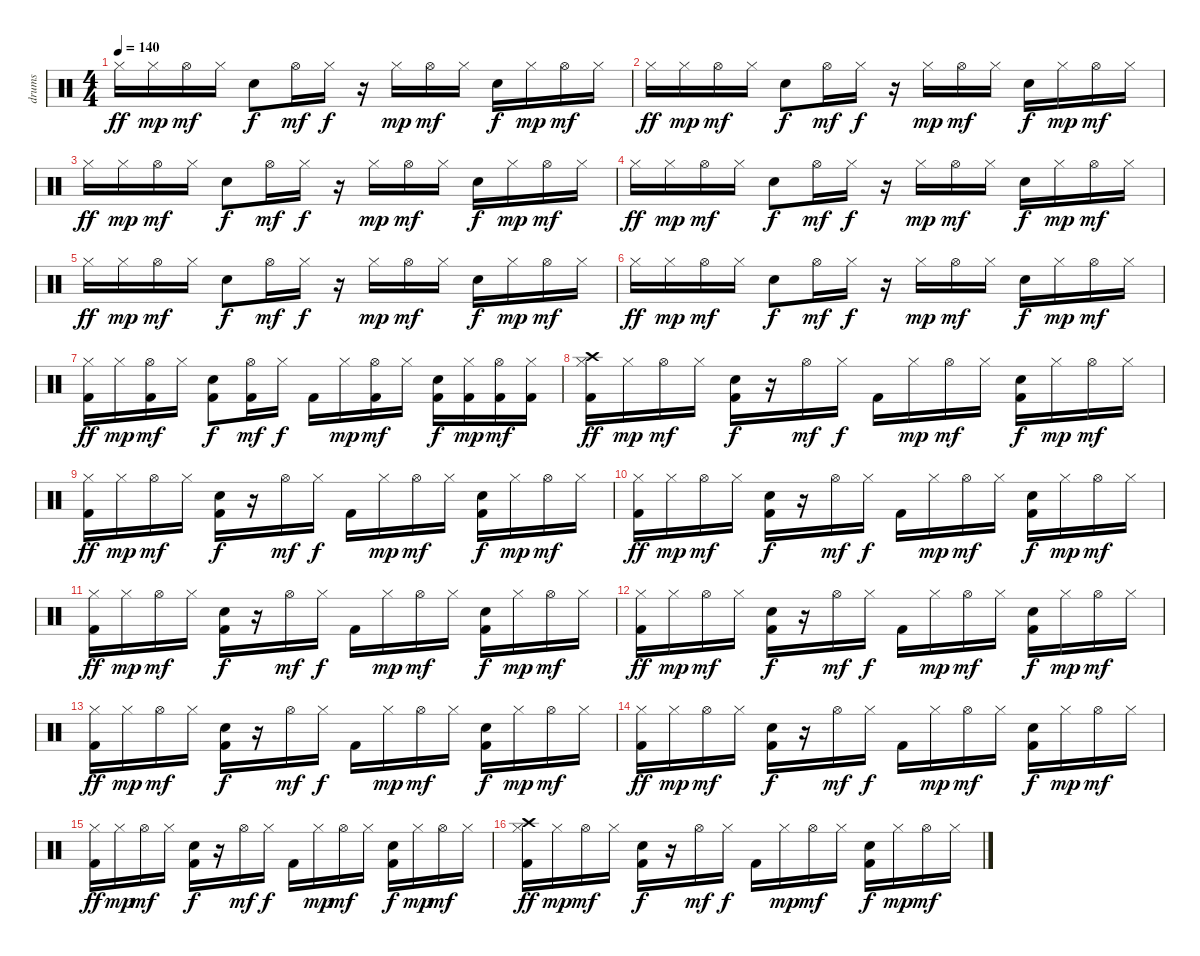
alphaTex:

\track ("drums" "drums") {instrument percussion}
\staff {score}
\articulation defaults
\ts (4 4)
\tempo 140
\clef neutral
\ks c "Hi-Hat (closed)".16{dy ff} "Hi-Hat (closed)".16{dy mp} "Hi-Hat (open)".16{dy mf} "Hi-Hat (closed)".16 "Hand Clap (hit)".8{dy f} "Hi-Hat (open)".16{dy mf} "Hi-Hat (closed)".16{dy f}
r.16 "Hi-Hat (closed)".16{dy mp} "Hi-Hat (open)".16{dy mf} "Hi-Hat (closed)".16 "Hand Clap (hit)".16{dy f} "Hi-Hat (closed)".16{dy mp} "Hi-Hat (open)".16{dy mf} "Hi-Hat (closed)".16 |
"Hi-Hat (closed)".16{dy ff} "Hi-Hat (closed)".16{dy mp} "Hi-Hat (open)".16{dy mf} "Hi-Hat (closed)".16 "Hand Clap (hit)".8{dy f} "Hi-Hat (open)".16{dy mf} "Hi-Hat (closed)".16{dy f} r.16 "Hi-Hat (closed)".16{dy mp} "Hi-Hat (open)".16{dy mf} "Hi-Hat (closed)".16 "Hand Clap (hit)".16{dy f} "Hi-Hat (closed)".16{dy mp} "Hi-Hat (open)".16{dy mf} "Hi-Hat (closed)".16 |
"Hi-Hat (closed)".16{dy ff} "Hi-Hat (closed)".16{dy mp} "Hi-Hat (open)".16{dy mf} "Hi-Hat (closed)".16 "Hand Clap (hit)".8{dy f} "Hi-Hat (open)".16{dy mf} "Hi-Hat (closed)".16{dy f} r.16 "Hi-Hat (closed)".16{dy mp} "Hi-Hat (open)".16{dy mf} "Hi-Hat (closed)".16 "Hand Clap (hit)".16{dy f} "Hi-Hat (closed)".16{dy mp} "Hi-Hat (open)".16{dy mf} "Hi-Hat (closed)".16 |
"Hi-Hat (closed)".16{dy ff} "Hi-Hat (closed)".16{dy mp} "Hi-Hat (open)".16{dy mf} "Hi-Hat (closed)".16 "Hand Clap (hit)".8{dy f} "Hi-Hat (open)".16{dy mf} "Hi-Hat (closed)".16{dy f} r.16 "Hi-Hat (closed)".16{dy mp} "Hi-Hat (open)".16{dy mf} "Hi-Hat (closed)".16 "Hand Clap (hit)".16{dy f} "Hi-Hat (closed)".16{dy mp} "Hi-Hat (open)".16{dy mf} "Hi-Hat (closed)".16 |
"Hi-Hat (closed)".16{dy ff} "Hi-Hat (closed)".16{dy mp} "Hi-Hat (open)".16{dy mf} "Hi-Hat (closed)".16 "Hand Clap (hit)".8{dy f} "Hi-Hat (open)".16{dy mf} "Hi-Hat (closed)".16{dy f} r.16 "Hi-Hat (closed)".16{dy mp} "Hi-Hat (open)".16{dy mf} "Hi-Hat (closed)".16 "Hand Clap (hit)".16{dy f} "Hi-Hat (closed)".16{dy mp} "Hi-Hat (open)".16{dy mf} "Hi-Hat (closed)".16 |
"Hi-Hat (closed)".16{dy ff} "Hi-Hat (closed)".16{dy mp} "Hi-Hat (open)".16{dy mf} "Hi-Hat (closed)".16 "Hand Clap (hit)".8{dy f} "Hi-Hat (open)".16{dy mf} "Hi-Hat (closed)".16{dy f} r.16 "Hi-Hat (closed)".16{dy mp} "Hi-Hat (open)".16{dy mf} "Hi-Hat (closed)".16 "Hand Clap (hit)".16{dy f} "Hi-Hat (closed)".16{dy mp} "Hi-Hat (open)".16{dy mf} "Hi-Hat (closed)".16 |
("Kick (hit) 2" "Hi-Hat (closed)").16{dy ff} "Hi-Hat (closed)".16{dy mp} ("Kick (hit) 2" "Hi-Hat (open)").16{dy mf} "Hi-Hat (closed)".16 ("Kick (hit) 2" "Hand Clap (hit)").8{dy f} ("Kick (hit) 2" "Hi-Hat (open)").16{dy mf} "Hi-Hat (closed)".16{dy f} "Kick (hit) 2".16 "Hi-Hat (closed)".16{dy mp} ("Kick (hit) 2" "Hi-Hat (open)").16{dy mf} "Hi-Hat (closed)".16 ("Kick (hit) 2" "Hand Clap (hit)").16{dy f} ("Kick (hit) 2" "Hi-Hat (closed)").16{dy mp} ("Kick (hit) 2" "Hi-Hat (open)").16{dy mf} ("Hi-Hat (closed)" "Kick (hit) 2").16 |
("Kick (hit) 2" "Crash high (hit)" "Hi-Hat (closed)").16{dy ff} "Hi-Hat (closed)".16{dy mp} "Hi-Hat (open)".16{dy mf} "Hi-Hat (closed)".16 ("Kick (hit) 2" "Hand Clap (hit)").16{dy f} r.16 "Hi-Hat (open)".16{dy mf} "Hi-Hat (closed)".16{dy f} "Kick (hit) 2".16 "Hi-Hat (closed)".16{dy mp} "Hi-Hat (open)".16{dy mf} "Hi-Hat (closed)".16 ("Kick (hit) 2" "Hand Clap (hit)").16{dy f} "Hi-Hat (closed)".16{dy mp} "Hi-Hat (open)".16{dy mf} "Hi-Hat (closed)".16 |
("Kick (hit) 2" "Hi-Hat (closed)").16{dy ff} "Hi-Hat (closed)".16{dy mp} "Hi-Hat (open)".16{dy mf} "Hi-Hat (closed)".16 ("Kick (hit) 2" "Hand Clap (hit)").16{dy f} r.16 "Hi-Hat (open)".16{dy mf} "Hi-Hat (closed)".16{dy f} "Kick (hit) 2".16 "Hi-Hat (closed)".16{dy mp} "Hi-Hat (open)".16{dy mf} "Hi-Hat (closed)".16 ("Kick (hit) 2" "Hand Clap (hit)").16{dy f} "Hi-Hat (closed)".16{dy mp} "Hi-Hat (open)".16{dy mf} "Hi-Hat (closed)".16 |
("Kick (hit) 2" "Hi-Hat (closed)").16{dy ff} "Hi-Hat (closed)".16{dy mp} "Hi-Hat (open)".16{dy mf} "Hi-Hat (closed)".16 ("Kick (hit) 2" "Hand Clap (hit)").16{dy f} r.16 "Hi-Hat (open)".16{dy mf} "Hi-Hat (closed)".16{dy f} "Kick (hit) 2".16 "Hi-Hat (closed)".16{dy mp} "Hi-Hat (open)".16{dy mf} "Hi-Hat (closed)".16 ("Kick (hit) 2" "Hand Clap (hit)").16{dy f} "Hi-Hat (closed)".16{dy mp} "Hi-Hat (open)".16{dy mf} "Hi-Hat (closed)".16 |
("Kick (hit) 2" "Hi-Hat (closed)").16{dy ff} "Hi-Hat (closed)".16{dy mp} "Hi-Hat (open)".16{dy mf} "Hi-Hat (closed)".16 ("Kick (hit) 2" "Hand Clap (hit)").16{dy f} r.16 "Hi-Hat (open)".16{dy mf} "Hi-Hat (closed)".16{dy f} "Kick (hit) 2".16 "Hi-Hat (closed)".16{dy mp} "Hi-Hat (open)".16{dy mf} "Hi-Hat (closed)".16 ("Kick (hit) 2" "Hand Clap (hit)").16{dy f} "Hi-Hat (closed)".16{dy mp} "Hi-Hat (open)".16{dy mf} "Hi-Hat (closed)".16 |
("Kick (hit) 2" "Hi-Hat (closed)").16{dy ff} "Hi-Hat (closed)".16{dy mp} "Hi-Hat (open)".16{dy mf} "Hi-Hat (closed)".16 ("Kick (hit) 2" "Hand Clap (hit)").16{dy f} r.16 "Hi-Hat (open)".16{dy mf} "Hi-Hat (closed)".16{dy f} "Kick (hit) 2".16 "Hi-Hat (closed)".16{dy mp} "Hi-Hat (open)".16{dy mf} "Hi-Hat (closed)".16 ("Kick (hit) 2" "Hand Clap (hit)").16{dy f} "Hi-Hat (closed)".16{dy mp} "Hi-Hat (open)".16{dy mf} "Hi-Hat (closed)".16 |
("Kick (hit) 2" "Hi-Hat (closed)").16{dy ff} "Hi-Hat (closed)".16{dy mp} "Hi-Hat (open)".16{dy mf} "Hi-Hat (closed)".16 ("Kick (hit) 2" "Hand Clap (hit)").16{dy f} r.16 "Hi-Hat (open)".16{dy mf} "Hi-Hat (closed)".16{dy f} "Kick (hit) 2".16 "Hi-Hat (closed)".16{dy mp} "Hi-Hat (open)".16{dy mf} "Hi-Hat (closed)".16 ("Kick (hit) 2" "Hand Clap (hit)").16{dy f} "Hi-Hat (closed)".16{dy mp} "Hi-Hat (open)".16{dy mf} "Hi-Hat (closed)".16 |
("Kick (hit) 2" "Hi-Hat (closed)").16{dy ff} "Hi-Hat (closed)".16{dy mp} "Hi-Hat (open)".16{dy mf} "Hi-Hat (closed)".16 ("Kick (hit) 2" "Hand Clap (hit)").16{dy f} r.16 "Hi-Hat (open)".16{dy mf} "Hi-Hat (closed)".16{dy f} "Kick (hit) 2".16 "Hi-Hat (closed)".16{dy mp} "Hi-Hat (open)".16{dy mf} "Hi-Hat (closed)".16 ("Kick (hit) 2" "Hand Clap (hit)").16{dy f} "Hi-Hat (closed)".16{dy mp} "Hi-Hat (open)".16{dy mf} "Hi-Hat (closed)".16 |
("Kick (hit) 2" "Hi-Hat (closed)").16{dy ff} "Hi-Hat (closed)".16{dy mp} "Hi-Hat (open)".16{dy mf} "Hi-Hat (closed)".16 ("Kick (hit) 2" "Hand Clap (hit)").16{dy f} r.16 "Hi-Hat (open)".16{dy mf} "Hi-Hat (closed)".16{dy f} "Kick (hit) 2".16 "Hi-Hat (closed)".16{dy mp} "Hi-Hat (open)".16{dy mf} "Hi-Hat (closed)".16 ("Kick (hit) 2" "Hand Clap (hit)").16{dy f} "Hi-Hat (closed)".16{dy mp} "Hi-Hat (open)".16{dy mf} "Hi-Hat (closed)".16 |
("Kick (hit) 2" "Crash high (hit)" "Hi-Hat (closed)").16{dy ff} "Hi-Hat (closed)".16{dy mp} "Hi-Hat (open)".16{dy mf} "Hi-Hat (closed)".16 ("Kick (hit) 2" "Hand Clap (hit)").16{dy f} r.16 "Hi-Hat (open)".16{dy mf} "Hi-Hat (closed)".16{dy f} "Kick (hit) 2".16 "Hi-Hat (closed)".16{dy mp} "Hi-Hat (open)".16{dy mf} "Hi-Hat (closed)".16 ("Kick (hit) 2" "Hand Clap (hit)").16{dy f} "Hi-Hat (closed)".16{dy mp} "Hi-Hat (open)".16{dy mf} "Hi-Hat (closed)".16
